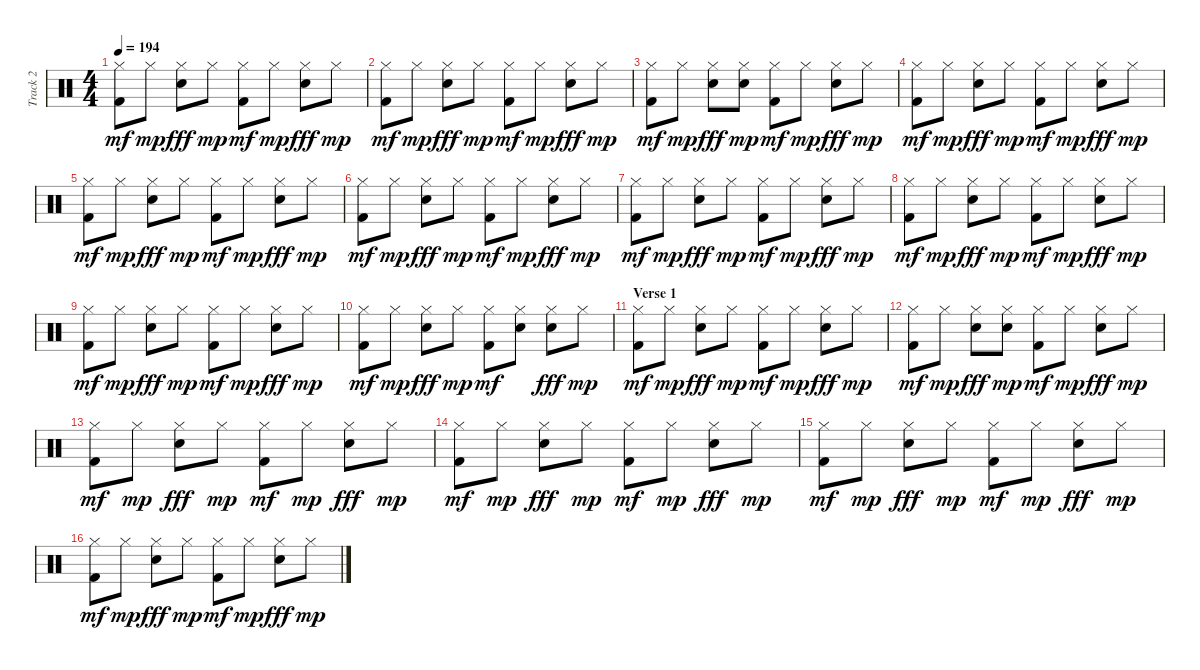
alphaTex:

\track ("Track 2" "Track 2") {instrument percussion}
\staff {score}
\articulation defaults
\ts (4 4)
\tempo 194
\clef neutral
\ks c
("Hi-Hat (closed)" "Kick (hit) 2").8{dy mf} "Hi-Hat (closed)".8{dy mp} ("Hi-Hat (closed)" "Snare (hit)").8{dy fff} "Hi-Hat (closed)".8{dy mp} ("Hi-Hat (closed)" "Kick (hit) 2").8{dy mf} "Hi-Hat (closed)".8{dy mp} ("Hi-Hat (closed)" "Snare (hit)").8{dy fff} "Hi-Hat (closed)".8{dy mp} |
("Hi-Hat (closed)" "Kick (hit) 2").8{dy mf} "Hi-Hat (closed)".8{dy mp} ("Hi-Hat (closed)" "Snare (hit)").8{dy fff} "Hi-Hat (closed)".8{dy mp} ("Hi-Hat (closed)" "Kick (hit) 2").8{dy mf} "Hi-Hat (closed)".8{dy mp} ("Hi-Hat (closed)" "Snare (hit)").8{dy fff} "Hi-Hat (closed)".8{dy mp} |
("Hi-Hat (closed)" "Kick (hit) 2").8{dy mf} "Hi-Hat (closed)".8{dy mp} ("Hi-Hat (closed)" "Snare (hit)").8{dy fff} ("Hi-Hat (closed)" "Snare (hit)").8{dy mp} ("Hi-Hat (closed)" "Kick (hit) 2").8{dy mf} "Hi-Hat (closed)".8{dy mp} ("Hi-Hat (closed)" "Snare (hit)").8{dy fff} "Hi-Hat (closed)".8{dy mp} |
("Hi-Hat (closed)" "Kick (hit) 2").8{dy mf} "Hi-Hat (closed)".8{dy mp} ("Hi-Hat (closed)" "Snare (hit)").8{dy fff} "Hi-Hat (closed)".8{dy mp} ("Hi-Hat (closed)" "Kick (hit) 2").8{dy mf} "Hi-Hat (closed)".8{dy mp} ("Hi-Hat (closed)" "Snare (hit)").8{dy fff} "Hi-Hat (closed)".8{dy mp} |
("Hi-Hat (closed)" "Kick (hit) 2").8{dy mf} "Hi-Hat (closed)".8{dy mp} ("Hi-Hat (closed)" "Snare (hit)").8{dy fff} "Hi-Hat (closed)".8{dy mp} ("Hi-Hat (closed)" "Kick (hit) 2").8{dy mf} "Hi-Hat (closed)".8{dy mp} ("Hi-Hat (closed)" "Snare (hit)").8{dy fff} "Hi-Hat (closed)".8{dy mp} |
("Hi-Hat (closed)" "Kick (hit) 2").8{dy mf} "Hi-Hat (closed)".8{dy mp} ("Hi-Hat (closed)" "Snare (hit)").8{dy fff} "Hi-Hat (closed)".8{dy mp} ("Hi-Hat (closed)" "Kick (hit) 2").8{dy mf} "Hi-Hat (closed)".8{dy mp} ("Hi-Hat (closed)" "Snare (hit)").8{dy fff} "Hi-Hat (closed)".8{dy mp} |
("Hi-Hat (closed)" "Kick (hit) 2").8{dy mf} "Hi-Hat (closed)".8{dy mp} ("Hi-Hat (closed)" "Snare (hit)").8{dy fff} "Hi-Hat (closed)".8{dy mp} ("Hi-Hat (closed)" "Kick (hit) 2").8{dy mf} "Hi-Hat (closed)".8{dy mp} ("Hi-Hat (closed)" "Snare (hit)").8{dy fff} "Hi-Hat (closed)".8{dy mp} |
("Hi-Hat (closed)" "Kick (hit) 2").8{dy mf} "Hi-Hat (closed)".8{dy mp} ("Hi-Hat (closed)" "Snare (hit)").8{dy fff} "Hi-Hat (closed)".8{dy mp} ("Hi-Hat (closed)" "Kick (hit) 2").8{dy mf} "Hi-Hat (closed)".8{dy mp} ("Hi-Hat (closed)" "Snare (hit)").8{dy fff} "Hi-Hat (closed)".8{dy mp} |
("Hi-Hat (closed)" "Kick (hit) 2").8{dy mf} "Hi-Hat (closed)".8{dy mp} ("Hi-Hat (closed)" "Snare (hit)").8{dy fff} "Hi-Hat (closed)".8{dy mp} ("Hi-Hat (closed)" "Kick (hit) 2").8{dy mf} "Hi-Hat (closed)".8{dy mp} ("Hi-Hat (closed)" "Snare (hit)").8{dy fff} "Hi-Hat (closed)".8{dy mp} |
("Hi-Hat (closed)" "Kick (hit) 2").8{dy mf} "Hi-Hat (closed)".8{dy mp} ("Hi-Hat (closed)" "Snare (hit)").8{dy fff} "Hi-Hat (closed)".8{dy mp} ("Hi-Hat (closed)" "Kick (hit) 2").8{dy mf} ("Hi-Hat (closed)" "Snare (hit)").8 ("Hi-Hat (closed)" "Snare (hit)").8{dy fff} "Hi-Hat (closed)".8{dy mp} |
\section ("" "Verse 1")
("Hi-Hat (closed)" "Kick (hit) 2").8{dy mf} "Hi-Hat (closed)".8{dy mp} ("Hi-Hat (closed)" "Snare (hit)").8{dy fff} "Hi-Hat (closed)".8{dy mp} ("Hi-Hat (closed)" "Kick (hit) 2").8{dy mf} "Hi-Hat (closed)".8{dy mp} ("Hi-Hat (closed)" "Snare (hit)").8{dy fff} "Hi-Hat (closed)".8{dy mp} |
("Hi-Hat (closed)" "Kick (hit) 2").8{dy mf} "Hi-Hat (closed)".8{dy mp} ("Hi-Hat (closed)" "Snare (hit)").8{dy fff} ("Hi-Hat (closed)" "Snare (hit)").8{dy mp} ("Hi-Hat (closed)" "Kick (hit) 2").8{dy mf} "Hi-Hat (closed)".8{dy mp} ("Hi-Hat (closed)" "Snare (hit)").8{dy fff} "Hi-Hat (closed)".8{dy mp} |
("Hi-Hat (closed)" "Kick (hit) 2").8{dy mf} "Hi-Hat (closed)".8{dy mp} ("Hi-Hat (closed)" "Snare (hit)").8{dy fff} "Hi-Hat (closed)".8{dy mp} ("Hi-Hat (closed)" "Kick (hit) 2").8{dy mf} "Hi-Hat (closed)".8{dy mp} ("Hi-Hat (closed)" "Snare (hit)").8{dy fff} "Hi-Hat (closed)".8{dy mp} |
("Hi-Hat (closed)" "Kick (hit) 2").8{dy mf} "Hi-Hat (closed)".8{dy mp} ("Hi-Hat (closed)" "Snare (hit)").8{dy fff} "Hi-Hat (closed)".8{dy mp} ("Hi-Hat (closed)" "Kick (hit) 2").8{dy mf} "Hi-Hat (closed)".8{dy mp} ("Hi-Hat (closed)" "Snare (hit)").8{dy fff} "Hi-Hat (closed)".8{dy mp} |
("Hi-Hat (closed)" "Kick (hit) 2").8{dy mf} "Hi-Hat (closed)".8{dy mp} ("Hi-Hat (closed)" "Snare (hit)").8{dy fff} "Hi-Hat (closed)".8{dy mp} ("Hi-Hat (closed)" "Kick (hit) 2").8{dy mf} "Hi-Hat (closed)".8{dy mp} ("Hi-Hat (closed)" "Snare (hit)").8{dy fff} "Hi-Hat (closed)".8{dy mp} |
("Hi-Hat (closed)" "Kick (hit) 2").8{dy mf} "Hi-Hat (closed)".8{dy mp} ("Hi-Hat (closed)" "Snare (hit)").8{dy fff} "Hi-Hat (closed)".8{dy mp} ("Hi-Hat (closed)" "Kick (hit) 2").8{dy mf} "Hi-Hat (closed)".8{dy mp} ("Hi-Hat (closed)" "Snare (hit)").8{dy fff} "Hi-Hat (closed)".8{dy mp}
